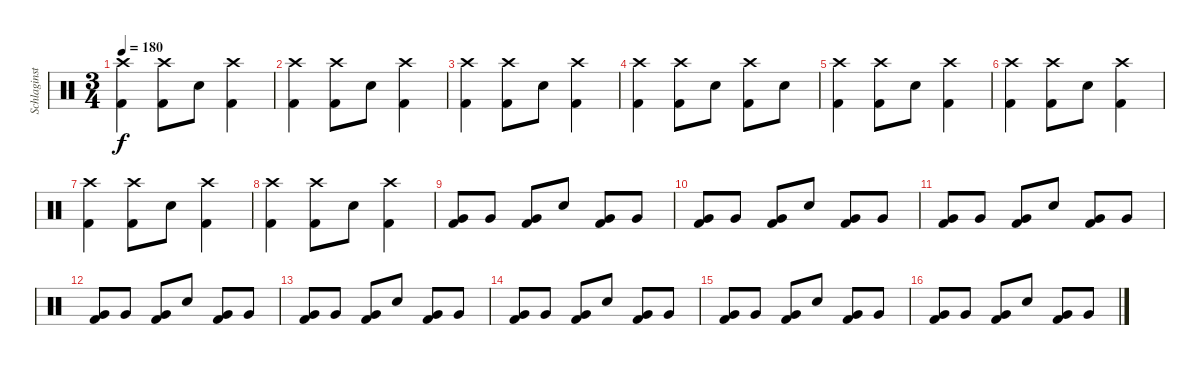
\track ("Schlaginstrumente - Auswahl" "Schlaginst") {instrument percussion}
\staff {score}
\articulation defaults
\ts (3 4)
\tempo 180
\clef neutral
\ks c
("Crash high (hit)" "Kick (hit) 2").4{dy f} ("Crash high (hit)" "Kick (hit) 2").8 "Snare (hit) 2".8 ("Crash high (hit)" "Kick (hit) 2").4 |
("Crash high (hit)" "Kick (hit) 2").4 ("Crash high (hit)" "Kick (hit) 2").8 "Snare (hit) 2".8 ("Crash high (hit)" "Kick (hit) 2").4 |
("Crash high (hit)" "Kick (hit) 2").4 ("Crash high (hit)" "Kick (hit) 2").8 "Snare (hit) 2".8 ("Crash high (hit)" "Kick (hit) 2").4 |
("Crash high (hit)" "Kick (hit) 2").4 ("Crash high (hit)" "Kick (hit) 2").8 "Snare (hit) 2".8 ("Crash high (hit)" "Kick (hit) 2").8 "Snare (hit) 2".8 |
("Crash high (hit)" "Kick (hit) 2").4 ("Crash high (hit)" "Kick (hit) 2").8 "Snare (hit) 2".8 ("Crash high (hit)" "Kick (hit) 2").4 |
("Crash high (hit)" "Kick (hit) 2").4 ("Crash high (hit)" "Kick (hit) 2").8 "Snare (hit) 2".8 ("Crash high (hit)" "Kick (hit) 2").4 |
("Crash high (hit)" "Kick (hit) 2").4 ("Crash high (hit)" "Kick (hit) 2").8 "Snare (hit) 2".8 ("Crash high (hit)" "Kick (hit) 2").4 |
("Crash high (hit)" "Kick (hit) 2").4 ("Crash high (hit)" "Kick (hit) 2").8 "Snare (hit) 2".8 ("Crash high (hit)" "Kick (hit) 2").4 |
("Very Low Tom (hit)" "Kick (hit) 2").8 "Very Low Tom (hit)".8 ("Very Low Tom (hit)" "Kick (hit) 2").8 "Snare (hit) 2".8 ("Very Low Tom (hit)" "Kick (hit) 2").8 "Very Low Tom (hit)".8 |
("Very Low Tom (hit)" "Kick (hit) 2").8 "Very Low Tom (hit)".8 ("Very Low Tom (hit)" "Kick (hit) 2").8 "Snare (hit) 2".8 ("Very Low Tom (hit)" "Kick (hit) 2").8 "Very Low Tom (hit)".8 |
("Very Low Tom (hit)" "Kick (hit) 2").8 "Very Low Tom (hit)".8 ("Very Low Tom (hit)" "Kick (hit) 2").8 "Snare (hit) 2".8 ("Very Low Tom (hit)" "Kick (hit) 2").8 "Very Low Tom (hit)".8 |
("Very Low Tom (hit)" "Kick (hit) 2").8 "Very Low Tom (hit)".8 ("Very Low Tom (hit)" "Kick (hit) 2").8 "Snare (hit) 2".8 ("Very Low Tom (hit)" "Kick (hit) 2").8 "Very Low Tom (hit)".8 |
("Very Low Tom (hit)" "Kick (hit) 2").8 "Very Low Tom (hit)".8 ("Very Low Tom (hit)" "Kick (hit) 2").8 "Snare (hit) 2".8 ("Very Low Tom (hit)" "Kick (hit) 2").8 "Very Low Tom (hit)".8 |
("Very Low Tom (hit)" "Kick (hit) 2").8 "Very Low Tom (hit)".8 ("Very Low Tom (hit)" "Kick (hit) 2").8 "Snare (hit) 2".8 ("Very Low Tom (hit)" "Kick (hit) 2").8 "Very Low Tom (hit)".8 |
("Very Low Tom (hit)" "Kick (hit) 2").8 "Very Low Tom (hit)".8 ("Very Low Tom (hit)" "Kick (hit) 2").8 "Snare (hit) 2".8 ("Very Low Tom (hit)" "Kick (hit) 2").8 "Very Low Tom (hit)".8 |
("Very Low Tom (hit)" "Kick (hit) 2").8 "Very Low Tom (hit)".8 ("Very Low Tom (hit)" "Kick (hit) 2").8 "Snare (hit) 2".8 ("Very Low Tom (hit)" "Kick (hit) 2").8 "Very Low Tom (hit)".8
